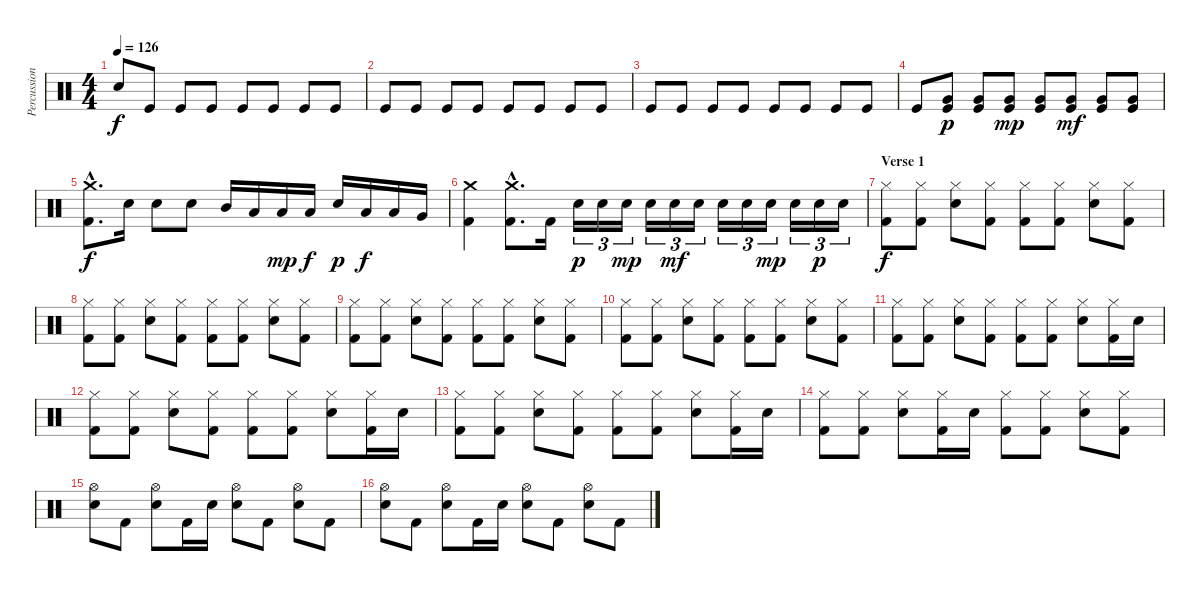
\track ("Percussion" "Percussion") {instrument percussion}
\staff {score}
\articulation defaults
\ts (4 4)
\tempo 126
\clef neutral
\ks c "Electric Snare (hit)".8{dy f} "Kick (hit)".8 "Kick (hit)".8 "Kick (hit)".8 "Kick (hit)".8 "Kick (hit)".8 "Kick (hit)".8 "Kick (hit)".8
|
"Kick (hit)".8 "Kick (hit)".8 "Kick (hit)".8 "Kick (hit)".8 "Kick (hit)".8 "Kick (hit)".8 "Kick (hit)".8 "Kick (hit)".8 |
"Kick (hit)".8 "Kick (hit)".8 "Kick (hit)".8 "Kick (hit)".8 "Kick (hit)".8 "Kick (hit)".8 "Kick (hit)".8 "Kick (hit)".8 |
"Kick (hit)".8 ("Very Low Tom (hit)" "Kick (hit)").8{dy p} ("Very Low Tom (hit)" "Kick (hit)").8 ("Very Low Tom (hit)" "Kick (hit)").8{dy mp} ("Very Low Tom (hit)" "Kick (hit)").8 ("Very Low Tom (hit)" "Kick (hit)").8{dy mf} ("Very Low Tom (hit)" "Kick (hit)").8 ("Very Low Tom (hit)" "Kick (hit)").8 |
("Crash medium (hit)"{hac} "Kick (hit) 2"{hac}).8{d dy f} "Snare (hit) 2".16 "Snare (hit) 2".8 "Snare (hit) 2".8 "Mid Tom (hit)".16 "Low Tom (hit)".16 "Low Tom (hit)".16{dy mp} "Low Tom (hit)".16{dy f} "Snare (hit) 2".16{dy p} "Low Tom (hit)".16{dy f} "Low Tom (hit)".16 "Very Low Tom (hit)".16 |
("Crash medium (hit)" "Kick (hit) 2").4 ("Crash medium (hit)"{hac} "Kick (hit) 2"{hac}).8{d} "Kick (hit) 2".16 "Electric Snare (hit)".16{tu (3 2) dy p} "Electric Snare (hit)".16{tu (3 2)} "Electric Snare (hit)".16{tu (3 2) dy mp} "Electric Snare (hit)".16{tu (3 2)} "Electric Snare (hit)".16{tu (3 2) dy mf} "Electric Snare (hit)".16{tu (3 2)} "Electric Snare (hit)".16{tu (3 2)} "Electric Snare (hit)".16{tu (3 2)} "Electric Snare (hit)".16{tu (3 2) dy mp} "Electric Snare (hit)".16{tu (3 2)} "Electric Snare (hit)".16{tu (3 2) dy p} "Electric Snare (hit)".16{tu (3 2)} |
\section ("" "Verse 1")
("Hi-Hat (closed)" "Kick (hit) 2").8{dy f} ("Hi-Hat (closed)" "Kick (hit) 2").8 ("Hi-Hat (closed)" "Electric Snare (hit)").8 ("Hi-Hat (closed)" "Kick (hit) 2").8 ("Hi-Hat (closed)" "Kick (hit) 2").8 ("Hi-Hat (closed)" "Kick (hit) 2").8 ("Hi-Hat (closed)" "Electric Snare (hit)").8 ("Hi-Hat (closed)" "Kick (hit) 2").8 |
("Hi-Hat (closed)" "Kick (hit) 2").8 ("Hi-Hat (closed)" "Kick (hit) 2").8 ("Hi-Hat (closed)" "Electric Snare (hit)").8 ("Hi-Hat (closed)" "Kick (hit) 2").8 ("Hi-Hat (closed)" "Kick (hit) 2").8 ("Hi-Hat (closed)" "Kick (hit) 2").8 ("Hi-Hat (closed)" "Electric Snare (hit)").8 ("Hi-Hat (closed)" "Kick (hit) 2").8 |
("Hi-Hat (closed)" "Kick (hit) 2").8 ("Hi-Hat (closed)" "Kick (hit) 2").8 ("Hi-Hat (closed)" "Electric Snare (hit)").8 ("Hi-Hat (closed)" "Kick (hit) 2").8 ("Hi-Hat (closed)" "Kick (hit) 2").8 ("Hi-Hat (closed)" "Kick (hit) 2").8 ("Hi-Hat (closed)" "Electric Snare (hit)").8 ("Hi-Hat (closed)" "Kick (hit) 2").8 |
("Hi-Hat (closed)" "Kick (hit) 2").8 ("Hi-Hat (closed)" "Kick (hit) 2").8 ("Hi-Hat (closed)" "Electric Snare (hit)").8 ("Hi-Hat (closed)" "Kick (hit) 2").8 ("Hi-Hat (closed)" "Kick (hit) 2").8 ("Hi-Hat (closed)" "Kick (hit) 2").8 ("Hi-Hat (closed)" "Electric Snare (hit)").8 ("Hi-Hat (closed)" "Kick (hit) 2").8 |
("Hi-Hat (closed)" "Kick (hit) 2").8 ("Hi-Hat (closed)" "Kick (hit) 2").8 ("Hi-Hat (closed)" "Electric Snare (hit)").8 ("Hi-Hat (closed)" "Kick (hit) 2").8 ("Hi-Hat (closed)" "Kick (hit) 2").8 ("Hi-Hat (closed)" "Kick (hit) 2").8 ("Hi-Hat (closed)" "Electric Snare (hit)").8 ("Hi-Hat (closed)" "Kick (hit) 2").16 "Electric Snare (hit)".16 |
("Hi-Hat (closed)" "Kick (hit) 2").8 ("Hi-Hat (closed)" "Kick (hit) 2").8 ("Hi-Hat (closed)" "Electric Snare (hit)").8 ("Hi-Hat (closed)" "Kick (hit) 2").8 ("Hi-Hat (closed)" "Kick (hit) 2").8 ("Hi-Hat (closed)" "Kick (hit) 2").8 ("Hi-Hat (closed)" "Electric Snare (hit)").8 ("Hi-Hat (closed)" "Kick (hit) 2").16 "Electric Snare (hit)".16 |
("Hi-Hat (closed)" "Kick (hit) 2").8 ("Hi-Hat (closed)" "Kick (hit) 2").8 ("Hi-Hat (closed)" "Electric Snare (hit)").8 ("Hi-Hat (closed)" "Kick (hit) 2").8 ("Hi-Hat (closed)" "Kick (hit) 2").8 ("Hi-Hat (closed)" "Kick (hit) 2").8 ("Hi-Hat (closed)" "Electric Snare (hit)").8 ("Hi-Hat (closed)" "Kick (hit) 2").16 "Electric Snare (hit)".16 |
("Hi-Hat (closed)" "Kick (hit) 2").8 ("Hi-Hat (closed)" "Kick (hit) 2").8 ("Hi-Hat (closed)" "Electric Snare (hit)").8 ("Hi-Hat (closed)" "Kick (hit) 2").16 "Electric Snare (hit)".16 ("Hi-Hat (closed)" "Kick (hit) 2").8 ("Hi-Hat (closed)" "Kick (hit) 2").8 ("Hi-Hat (closed)" "Electric Snare (hit)").8 ("Hi-Hat (closed)" "Kick (hit) 2").8 |
("Hi-Hat (open)" "Electric Snare (hit)").8 "Kick (hit) 2".8 ("Hi-Hat (open)" "Electric Snare (hit)").8 "Kick (hit) 2".16 "Electric Snare (hit)".16 ("Hi-Hat (open)" "Electric Snare (hit)").8 "Kick (hit) 2".8 ("Hi-Hat (open)" "Electric Snare (hit)").8 "Kick (hit) 2".8 |
("Hi-Hat (open)" "Electric Snare (hit)").8 "Kick (hit) 2".8 ("Hi-Hat (open)" "Electric Snare (hit)").8 "Kick (hit) 2".16 "Electric Snare (hit)".16 ("Hi-Hat (open)" "Electric Snare (hit)").8 "Kick (hit) 2".8 ("Hi-Hat (open)" "Electric Snare (hit)").8 "Kick (hit) 2".8
